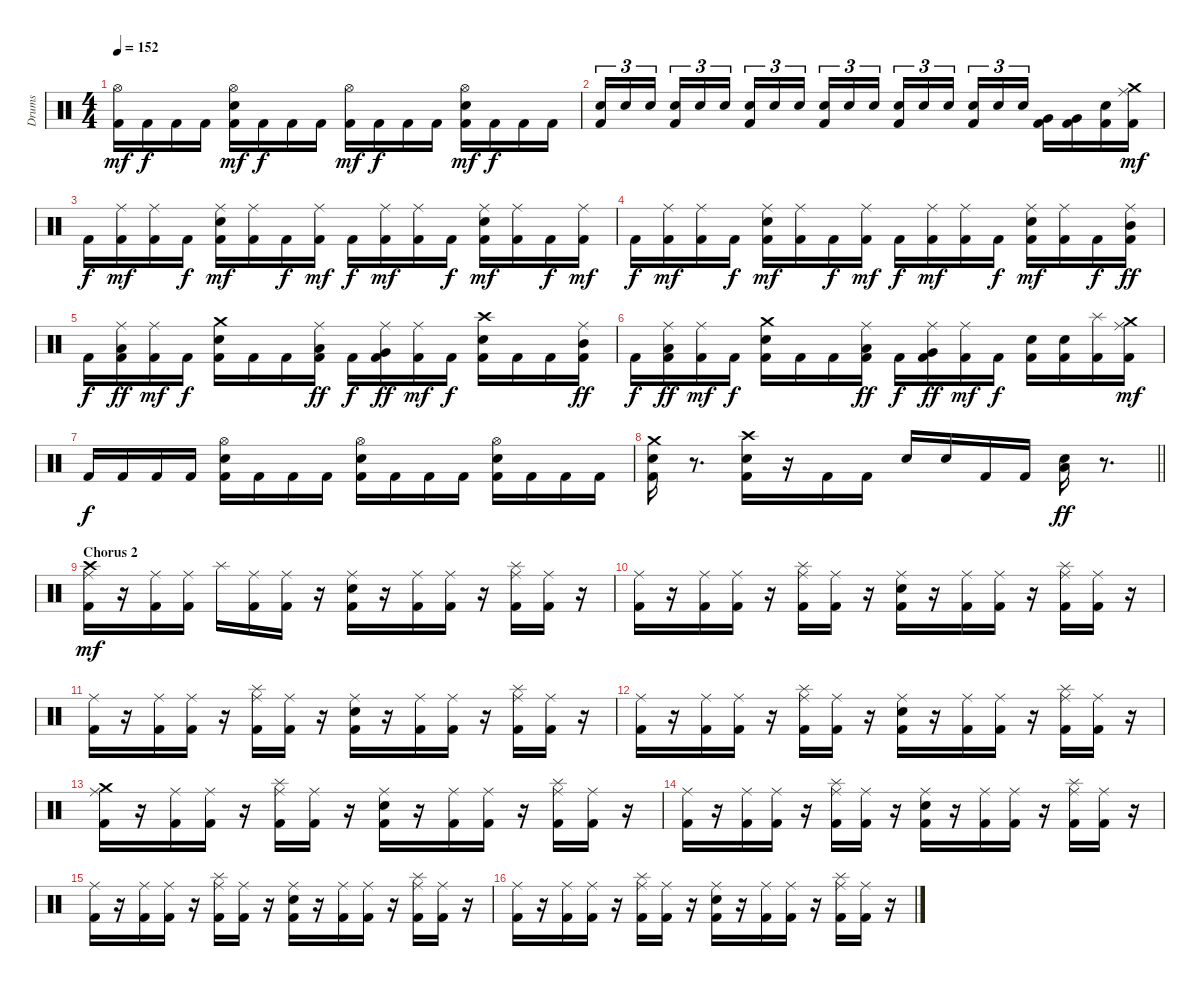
\track ("Drums" "Drums") {instrument percussion}
\staff {score}
\articulation defaults
\ts (4 4)
\tempo 152
\clef neutral
\ks c
("Hi-Hat (open)" "Kick (hit) 2").16{dy mf} "Kick (hit) 2".16{dy f} "Kick (hit) 2".16 "Kick (hit) 2".16 ("Hi-Hat (open)" "Snare (hit) 2" "Kick (hit) 2").16{dy mf} "Kick (hit) 2".16{dy f} "Kick (hit) 2".16 "Kick (hit) 2".16 ("Hi-Hat (open)" "Kick (hit) 2").16{dy mf} "Kick (hit) 2".16{dy f} "Kick (hit) 2".16 "Kick (hit) 2".16 ("Hi-Hat (open)" "Snare (hit) 2" "Kick (hit) 2").16{dy mf} "Kick (hit) 2".16{dy f} "Kick (hit) 2".16 "Kick (hit) 2".16 |
("Snare (hit) 2" "Kick (hit) 2").16{tu (3 2)} "Snare (hit) 2".16{tu (3 2)} "Snare (hit) 2".16{tu (3 2)} ("Snare (hit) 2" "Kick (hit) 2").16{tu (3 2)} "Snare (hit) 2".16{tu (3 2)} "Snare (hit) 2".16{tu (3 2)} ("Snare (hit) 2" "Kick (hit) 2").16{tu (3 2)} "Snare (hit) 2".16{tu (3 2)} "Snare (hit) 2".16{tu (3 2)} ("Snare (hit) 2" "Kick (hit) 2").16{tu (3 2)} "Snare (hit) 2".16{tu (3 2)} "Snare (hit) 2".16{tu (3 2)} ("Snare (hit) 2" "Kick (hit) 2").16{tu (3 2)} "Snare (hit) 2".16{tu (3 2)} "Snare (hit) 2".16{tu (3 2)} ("Snare (hit) 2" "Kick (hit) 2").16{tu (3 2)} "Snare (hit) 2".16{tu (3 2)} "Snare (hit) 2".16{tu (3 2)} ("Very Low Tom (hit)" "Kick (hit) 2").16 ("Very Low Tom (hit)" "Kick (hit) 2").16 ("Snare (hit) 2" "Kick (hit) 2").16 ("Crash medium (hit)" "Ride (middle)" "Kick (hit) 2").16{dy mf} |
"Kick (hit) 2".16{dy f} ("Ride (middle)" "Kick (hit) 2").16{dy mf} ("Ride (middle)" "Kick (hit) 2").16 "Kick (hit) 2".16{dy f} ("Ride (middle)" "Snare (hit) 2" "Kick (hit) 2").16{dy mf} ("Ride (middle)" "Kick (hit) 2").16 "Kick (hit) 2".16{dy f} ("Ride (middle)" "Kick (hit) 2").16{dy mf} "Kick (hit) 2".16{dy f} ("Ride (middle)" "Kick (hit) 2").16{dy mf} ("Ride (middle)" "Kick (hit) 2").16 "Kick (hit) 2".16{dy f} ("Ride (middle)" "Snare (hit) 2" "Kick (hit) 2").16{dy mf} ("Ride (middle)" "Kick (hit) 2").16 "Kick (hit) 2".16{dy f} ("Ride (middle)" "Kick (hit) 2").16{dy mf} |
"Kick (hit) 2".16{dy f} ("Ride (middle)" "Kick (hit) 2").16{dy mf} ("Ride (middle)" "Kick (hit) 2").16 "Kick (hit) 2".16{dy f} ("Ride (middle)" "Snare (hit) 2" "Kick (hit) 2").16{dy mf} ("Ride (middle)" "Kick (hit) 2").16 "Kick (hit) 2".16{dy f} ("Ride (middle)" "Kick (hit) 2").16{dy mf} "Kick (hit) 2".16{dy f} ("Ride (middle)" "Kick (hit) 2").16{dy mf} ("Ride (middle)" "Kick (hit) 2").16 "Kick (hit) 2".16{dy f} ("Ride (middle)" "Snare (hit) 2" "Kick (hit) 2").16{dy mf} ("Ride (middle)" "Kick (hit) 2").16 "Kick (hit) 2".16{dy f} ("Ride (middle)" "Mid Tom (hit)" "Kick (hit) 2").16{dy ff} |
"Kick (hit) 2".16{dy f} ("Ride (middle)" "Low Tom (hit)" "Kick (hit) 2").16{dy ff} ("Ride (middle)" "Kick (hit) 2").16{dy mf} "Kick (hit) 2".16{dy f} ("Crash medium (hit)" "Snare (hit) 2" "Kick (hit) 2").16 "Kick (hit) 2".16 "Kick (hit) 2".16 ("Ride (middle)" "Low Tom (hit)" "Kick (hit) 2").16{dy ff} "Kick (hit) 2".16{dy f} ("Ride (middle)" "Very Low Tom (hit)" "Kick (hit) 2").16{dy ff} ("Ride (middle)" "Kick (hit) 2").16{dy mf} "Kick (hit) 2".16{dy f} ("Crash high (hit)" "Snare (hit) 2" "Kick (hit) 2").16 "Kick (hit) 2".16 "Kick (hit) 2".16 ("Ride (middle)" "Mid Tom (hit)" "Kick (hit) 2").16{dy ff} |
"Kick (hit) 2".16{dy f} ("Ride (middle)" "Low Tom (hit)" "Kick (hit) 2").16{dy ff} ("Ride (middle)" "Kick (hit) 2").16{dy mf} "Kick (hit) 2".16{dy f} ("Crash medium (hit)" "Snare (hit) 2" "Kick (hit) 2").16 "Kick (hit) 2".16 "Kick (hit) 2".16 ("Ride (middle)" "Low Tom (hit)" "Kick (hit) 2").16{dy ff} "Kick (hit) 2".16{dy f} ("Ride (middle)" "Very Low Tom (hit)" "Kick (hit) 2").16{dy ff} ("Ride (middle)" "Kick (hit) 2").16{dy mf} "Kick (hit) 2".16{dy f} ("Snare (hit) 2" "Kick (hit) 2").16 ("Snare (hit) 2" "Kick (hit) 2").16 ("Splash (hit)" "Kick (hit) 2").16 ("Crash medium (hit)" "Ride (middle)" "Kick (hit) 2").16{dy mf} |
"Kick (hit) 2".16{dy f} "Kick (hit) 2".16 "Kick (hit) 2".16 "Kick (hit) 2".16 ("Hi-Hat (open)" "Snare (hit) 2" "Kick (hit) 2").16 "Kick (hit) 2".16 "Kick (hit) 2".16 "Kick (hit) 2".16 ("Hi-Hat (open)" "Snare (hit) 2" "Kick (hit) 2").16 "Kick (hit) 2".16 "Kick (hit) 2".16 "Kick (hit) 2".16 ("Hi-Hat (open)" "Snare (hit) 2" "Kick (hit) 2").16 "Kick (hit) 2".16 "Kick (hit) 2".16 "Kick (hit) 2".16 |
\barLineRight lightlight
("Crash medium (hit)" "Snare (hit) 2" "Kick (hit) 2").16 r.8{d} ("Crash high (hit)" "Snare (hit) 2" "Kick (hit) 2").16 r.16 "Kick (hit) 2".16 "Kick (hit) 2".16 "Snare (hit) 2".16 "Snare (hit) 2".16 "Kick (hit) 2".16 "Kick (hit) 2".16 ("Low Floor Tom (hit)" "Snare (hit) 2").16{dy ff} r.8{d} |
\section ("" "Chorus 2")
("Crash high (hit)" "Ride (middle)" "Kick (hit) 2").16{dy mf} r.16 ("Ride (middle)" "Kick (hit) 2").16 ("Ride (middle)" "Kick (hit) 2").16 "Splash (hit)".16 ("Ride (middle)" "Kick (hit) 2").16 ("Ride (middle)" "Kick (hit) 2").16 r.16 ("Ride (middle)" "Snare (hit) 2" "Kick (hit) 2").16 r.16 ("Ride (middle)" "Kick (hit) 2").16 ("Ride (middle)" "Kick (hit) 2").16 r.16 ("Splash (hit)" "Ride (middle)" "Kick (hit) 2").16 ("Ride (middle)" "Kick (hit) 2").16 r.16 |
("Ride (middle)" "Kick (hit) 2").16 r.16 ("Ride (middle)" "Kick (hit) 2").16 ("Ride (middle)" "Kick (hit) 2").16 r.16 ("Splash (hit)" "Ride (middle)" "Kick (hit) 2").16 ("Ride (middle)" "Kick (hit) 2").16 r.16 ("Ride (middle)" "Snare (hit) 2" "Kick (hit) 2").16 r.16 ("Ride (middle)" "Kick (hit) 2").16 ("Ride (middle)" "Kick (hit) 2").16 r.16 ("Splash (hit)" "Ride (middle)" "Kick (hit) 2").16 ("Ride (middle)" "Kick (hit) 2").16 r.16 |
("Ride (middle)" "Kick (hit) 2").16 r.16 ("Ride (middle)" "Kick (hit) 2").16 ("Ride (middle)" "Kick (hit) 2").16 r.16 ("Splash (hit)" "Ride (middle)" "Kick (hit) 2").16 ("Ride (middle)" "Kick (hit) 2").16 r.16 ("Ride (middle)" "Snare (hit) 2" "Kick (hit) 2").16 r.16 ("Ride (middle)" "Kick (hit) 2").16 ("Ride (middle)" "Kick (hit) 2").16 r.16 ("Splash (hit)" "Ride (middle)" "Kick (hit) 2").16 ("Ride (middle)" "Kick (hit) 2").16 r.16 |
("Ride (middle)" "Kick (hit) 2").16 r.16 ("Ride (middle)" "Kick (hit) 2").16 ("Ride (middle)" "Kick (hit) 2").16 r.16 ("Splash (hit)" "Ride (middle)" "Kick (hit) 2").16 ("Ride (middle)" "Kick (hit) 2").16 r.16 ("Ride (middle)" "Snare (hit) 2" "Kick (hit) 2").16 r.16 ("Ride (middle)" "Kick (hit) 2").16 ("Ride (middle)" "Kick (hit) 2").16 r.16 ("Splash (hit)" "Ride (middle)" "Kick (hit) 2").16 ("Ride (middle)" "Kick (hit) 2").16 r.16 |
("Crash medium (hit)" "Ride (middle)" "Kick (hit) 2").16 r.16 ("Ride (middle)" "Kick (hit) 2").16 ("Ride (middle)" "Kick (hit) 2").16 r.16 ("Splash (hit)" "Ride (middle)" "Kick (hit) 2").16 ("Ride (middle)" "Kick (hit) 2").16 r.16 ("Ride (middle)" "Snare (hit) 2" "Kick (hit) 2").16 r.16 ("Ride (middle)" "Kick (hit) 2").16 ("Ride (middle)" "Kick (hit) 2").16 r.16 ("Splash (hit)" "Ride (middle)" "Kick (hit) 2").16 ("Ride (middle)" "Kick (hit) 2").16 r.16 |
("Ride (middle)" "Kick (hit) 2").16 r.16 ("Ride (middle)" "Kick (hit) 2").16 ("Ride (middle)" "Kick (hit) 2").16 r.16 ("Splash (hit)" "Ride (middle)" "Kick (hit) 2").16 ("Ride (middle)" "Kick (hit) 2").16 r.16 ("Ride (middle)" "Snare (hit) 2" "Kick (hit) 2").16 r.16 ("Ride (middle)" "Kick (hit) 2").16 ("Ride (middle)" "Kick (hit) 2").16 r.16 ("Splash (hit)" "Ride (middle)" "Kick (hit) 2").16 ("Ride (middle)" "Kick (hit) 2").16 r.16 |
("Ride (middle)" "Kick (hit) 2").16 r.16 ("Ride (middle)" "Kick (hit) 2").16 ("Ride (middle)" "Kick (hit) 2").16 r.16 ("Splash (hit)" "Ride (middle)" "Kick (hit) 2").16 ("Ride (middle)" "Kick (hit) 2").16 r.16 ("Ride (middle)" "Snare (hit) 2" "Kick (hit) 2").16 r.16 ("Ride (middle)" "Kick (hit) 2").16 ("Ride (middle)" "Kick (hit) 2").16 r.16 ("Splash (hit)" "Ride (middle)" "Kick (hit) 2").16 ("Ride (middle)" "Kick (hit) 2").16 r.16 |
("Ride (middle)" "Kick (hit) 2").16 r.16 ("Ride (middle)" "Kick (hit) 2").16 ("Ride (middle)" "Kick (hit) 2").16 r.16 ("Splash (hit)" "Ride (middle)" "Kick (hit) 2").16 ("Ride (middle)" "Kick (hit) 2").16 r.16 ("Ride (middle)" "Snare (hit) 2" "Kick (hit) 2").16 r.16 ("Ride (middle)" "Kick (hit) 2").16 ("Ride (middle)" "Kick (hit) 2").16 r.16 ("Splash (hit)" "Ride (middle)" "Kick (hit) 2").16 ("Ride (middle)" "Kick (hit) 2").16 r.16
